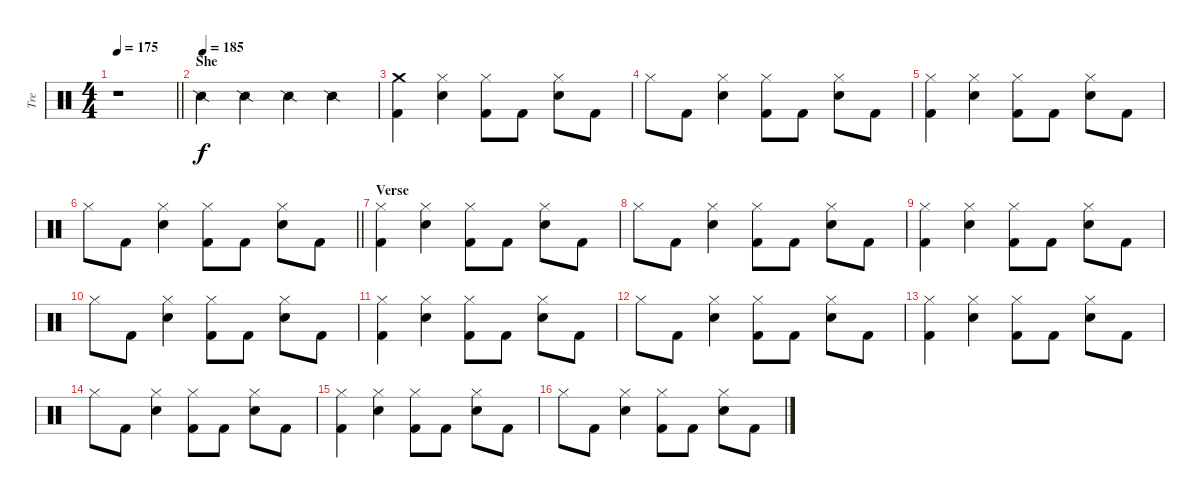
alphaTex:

\track ("Tre" "Tre") {instrument percussion}
\staff {score}
\articulation defaults
\ts (4 4)
\tempo 175
\clef neutral
\barLineRight lightlight
\ks c
r.1{dy f} |
\section ("" "She")
\tempo (185)
"Snare (side stick) 2".4 "Snare (side stick) 2".4 "Snare (side stick) 2".4 "Snare (side stick) 2".4 |
("Crash medium (hit)" "Kick (hit) 2").4 ("Hi-Hat (closed)" "Snare (hit) 2").4 ("Hi-Hat (closed)" "Kick (hit) 2").8 "Kick (hit) 2".8 ("Hi-Hat (closed)" "Snare (hit) 2").8 "Kick (hit) 2".8 |
"Hi-Hat (closed)".8 "Kick (hit) 2".8 ("Hi-Hat (closed)" "Snare (hit) 2").4 ("Hi-Hat (closed)" "Kick (hit) 2").8 "Kick (hit) 2".8 ("Hi-Hat (closed)" "Snare (hit) 2").8 "Kick (hit) 2".8 |
("Hi-Hat (closed)" "Kick (hit) 2").4 ("Hi-Hat (closed)" "Snare (hit) 2").4 ("Hi-Hat (closed)" "Kick (hit) 2").8 "Kick (hit) 2".8 ("Hi-Hat (closed)" "Snare (hit) 2").8 "Kick (hit) 2".8 |
\barLineRight lightlight "Hi-Hat (closed)".8 "Kick (hit) 2".8
("Hi-Hat (closed)" "Snare (hit) 2").4 ("Hi-Hat (closed)" "Kick (hit) 2").8 "Kick (hit) 2".8 ("Hi-Hat (closed)" "Snare (hit) 2").8 "Kick (hit) 2".8 |
\section ("" "Verse")
("Hi-Hat (closed)" "Kick (hit) 2").4 ("Hi-Hat (closed)" "Snare (hit) 2").4 ("Hi-Hat (closed)" "Kick (hit) 2").8 "Kick (hit) 2".8 ("Hi-Hat (closed)" "Snare (hit) 2").8 "Kick (hit) 2".8 |
"Hi-Hat (closed)".8 "Kick (hit) 2".8 ("Hi-Hat (closed)" "Snare (hit) 2").4 ("Hi-Hat (closed)" "Kick (hit) 2").8 "Kick (hit) 2".8 ("Hi-Hat (closed)" "Snare (hit) 2").8 "Kick (hit) 2".8 |
("Hi-Hat (closed)" "Kick (hit) 2").4 ("Hi-Hat (closed)" "Snare (hit) 2").4 ("Hi-Hat (closed)" "Kick (hit) 2").8 "Kick (hit) 2".8 ("Hi-Hat (closed)" "Snare (hit) 2").8 "Kick (hit) 2".8 |
"Hi-Hat (closed)".8 "Kick (hit) 2".8 ("Hi-Hat (closed)" "Snare (hit) 2").4 ("Hi-Hat (closed)" "Kick (hit) 2").8 "Kick (hit) 2".8 ("Hi-Hat (closed)" "Snare (hit) 2").8 "Kick (hit) 2".8 |
("Hi-Hat (closed)" "Kick (hit) 2").4 ("Hi-Hat (closed)" "Snare (hit) 2").4 ("Hi-Hat (closed)" "Kick (hit) 2").8 "Kick (hit) 2".8 ("Hi-Hat (closed)" "Snare (hit) 2").8 "Kick (hit) 2".8 |
"Hi-Hat (closed)".8 "Kick (hit) 2".8 ("Hi-Hat (closed)" "Snare (hit) 2").4 ("Hi-Hat (closed)" "Kick (hit) 2").8 "Kick (hit) 2".8 ("Hi-Hat (closed)" "Snare (hit) 2").8 "Kick (hit) 2".8 |
("Hi-Hat (closed)" "Kick (hit) 2").4 ("Hi-Hat (closed)" "Snare (hit) 2").4 ("Hi-Hat (closed)" "Kick (hit) 2").8 "Kick (hit) 2".8 ("Hi-Hat (closed)" "Snare (hit) 2").8 "Kick (hit) 2".8 |
"Hi-Hat (closed)".8 "Kick (hit) 2".8 ("Hi-Hat (closed)" "Snare (hit) 2").4 ("Hi-Hat (closed)" "Kick (hit) 2").8 "Kick (hit) 2".8 ("Hi-Hat (closed)" "Snare (hit) 2").8 "Kick (hit) 2".8 |
("Hi-Hat (closed)" "Kick (hit) 2").4 ("Hi-Hat (closed)" "Snare (hit) 2").4 ("Hi-Hat (closed)" "Kick (hit) 2").8 "Kick (hit) 2".8 ("Hi-Hat (closed)" "Snare (hit) 2").8 "Kick (hit) 2".8 |
"Hi-Hat (closed)".8 "Kick (hit) 2".8 ("Hi-Hat (closed)" "Snare (hit) 2").4 ("Hi-Hat (closed)" "Kick (hit) 2").8 "Kick (hit) 2".8 ("Hi-Hat (closed)" "Snare (hit) 2").8 "Kick (hit) 2".8
